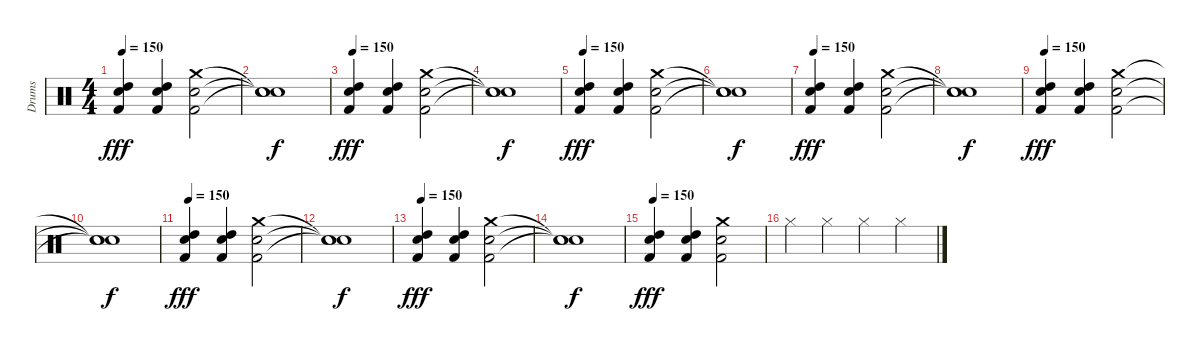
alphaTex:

\track ("Drums" "Drums") {instrument percussion}
\staff {score}
\articulation defaults
\ts (4 4)
\tempo 150
\clef neutral
\ks c
("Electric Snare (hit)" "High Tom (hit)" "Kick (hit) 2").4{dy fff} ("Electric Snare (hit)" "High Tom (hit)" "Kick (hit) 2").4 ("Electric Snare (hit)" "Crash medium (hit)" "Kick (hit) 2").2 |
("Snare (hit)"{t} "Snare (hit)"{t} "Snare (hit)"{t}).1{dy f} |
\tempo 150
("Electric Snare (hit)" "High Tom (hit)" "Kick (hit) 2").4{dy fff} ("Electric Snare (hit)" "High Tom (hit)" "Kick (hit) 2").4 ("Electric Snare (hit)" "Crash medium (hit)" "Kick (hit) 2").2 |
("Snare (hit)"{t} "Snare (hit)"{t} "Snare (hit)"{t}).1{dy f} |
\tempo 150
("Electric Snare (hit)" "High Tom (hit)" "Kick (hit) 2").4{dy fff} ("Electric Snare (hit)" "High Tom (hit)" "Kick (hit) 2").4 ("Electric Snare (hit)" "Crash medium (hit)" "Kick (hit) 2").2 |
("Snare (hit)"{t} "Snare (hit)"{t} "Snare (hit)"{t}).1{dy f} |
\tempo 150
("Electric Snare (hit)" "High Tom (hit)" "Kick (hit) 2").4{dy fff} ("Electric Snare (hit)" "High Tom (hit)" "Kick (hit) 2").4 ("Electric Snare (hit)" "Crash medium (hit)" "Kick (hit) 2").2 |
("Snare (hit)"{t} "Snare (hit)"{t} "Snare (hit)"{t}).1{dy f} |
\tempo 150
("Electric Snare (hit)" "High Tom (hit)" "Kick (hit) 2").4{dy fff} ("Electric Snare (hit)" "High Tom (hit)" "Kick (hit) 2").4 ("Electric Snare (hit)" "Crash medium (hit)" "Kick (hit) 2").2 |
("Snare (hit)"{t} "Snare (hit)"{t} "Snare (hit)"{t}).1{dy f} |
\tempo 150
("Electric Snare (hit)" "High Tom (hit)" "Kick (hit) 2").4{dy fff} ("Electric Snare (hit)" "High Tom (hit)" "Kick (hit) 2").4 ("Electric Snare (hit)" "Crash medium (hit)" "Kick (hit) 2").2 |
("Snare (hit)"{t} "Snare (hit)"{t} "Snare (hit)"{t}).1{dy f} |
\tempo 150
("Electric Snare (hit)" "High Tom (hit)" "Kick (hit) 2").4{dy fff} ("Electric Snare (hit)" "High Tom (hit)" "Kick (hit) 2").4 ("Electric Snare (hit)" "Crash medium (hit)" "Kick (hit) 2").2 |
("Snare (hit)"{t} "Snare (hit)"{t} "Snare (hit)"{t}).1{dy f} |
\tempo 150
("Electric Snare (hit)" "High Tom (hit)" "Kick (hit) 2").4{dy fff} ("Electric Snare (hit)" "High Tom (hit)" "Kick (hit) 2").4 ("Electric Snare (hit)" "Crash medium (hit)" "Kick (hit) 2").2 |
"Hi-Hat (closed)".4 "Hi-Hat (closed)".4 "Hi-Hat (closed)".4 "Hi-Hat (closed)".4
